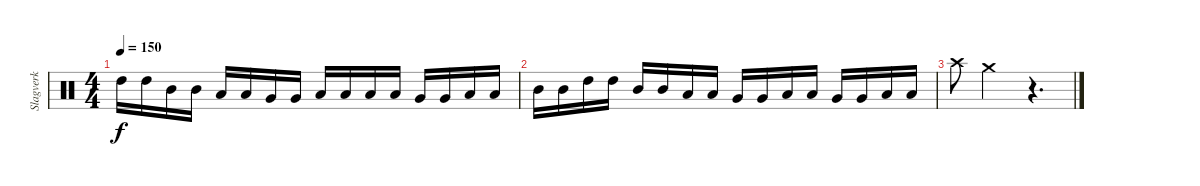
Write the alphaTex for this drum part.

\track ("Slagverk" "Slagverk") {instrument percussion}
\staff {score}
\articulation defaults
\ts (4 4)
\tempo 150
\clef neutral
\ks c "High Tom (hit)".16{dy f} "High Tom (hit)".16 "Mid Tom (hit)".16 "Mid Tom (hit)".16 "Low Tom (hit)".16 "Low Tom (hit)".16 "Very Low Tom (hit)".16 "Very Low Tom (hit)".16 "Low Floor Tom (hit)".16 "Low Floor Tom (hit)".16 "Low Floor Tom (hit)".16 "Low Floor Tom (hit)".16 "Very Low Tom (hit)".16 "Very Low Tom (hit)".16 "Low Tom (hit)".16 "Low Tom (hit)".16
|
"Mid Tom (hit)".16 "Mid Tom (hit)".16 "High Tom (hit)".16 "High Tom (hit)".16 "Mid Tom (hit)".16 "Mid Tom (hit)".16 "Low Tom (hit)".16 "Low Tom (hit)".16 "Very Low Tom (hit)".16 "Very Low Tom (hit)".16 "Low Floor Tom (hit)".16 "Low Floor Tom (hit)".16 "Very Low Tom (hit)".16 "Very Low Tom (hit)".16 "Low Tom (hit)".16 "Low Tom (hit)".16 |
"Crash high (hit)".8 "Crash medium (hit)".2 r.4{d}
